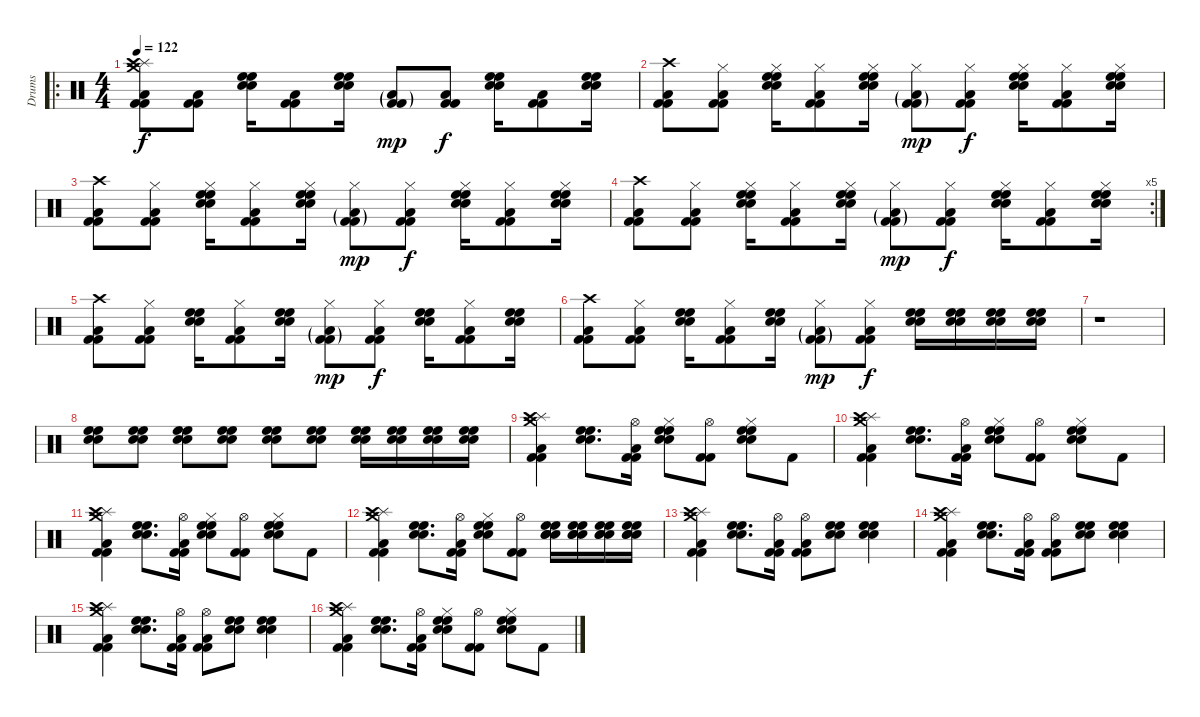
\track ("Drums" "Drums") {instrument percussion}
\staff {score}
\articulation defaults
\ro
\ts (4 4)
\tempo 122
\clef neutral
\ks c
("Crash medium (hit)" "Splash (hit)" "Crash high (hit)" "Low Floor Tom (hit)" "Kick (hit) 2" "Kick (hit) 2").8{dy f} ("Low Floor Tom (hit)" "Kick (hit) 2" "Kick (hit) 2").8 ("High Floor Tom (hit)" "Electric Snare (hit)" "High Floor Tom (hit)" "Electric Snare (hit)").16 ("Low Floor Tom (hit)" "Kick (hit) 2" "Kick (hit) 2").8 ("High Floor Tom (hit)" "Electric Snare (hit)" "High Floor Tom (hit)" "Electric Snare (hit)").16 ("Low Floor Tom (hit)"{g} "Kick (hit) 2"{g} "Kick (hit) 2"{g}).8{dy mp} ("Low Floor Tom (hit)" "Kick (hit) 2" "Kick (hit) 2").8{dy f} ("High Floor Tom (hit)" "Electric Snare (hit)" "High Floor Tom (hit)" "Electric Snare (hit)").16 ("Low Floor Tom (hit)" "Kick (hit) 2" "Kick (hit) 2").8 ("High Floor Tom (hit)" "Electric Snare (hit)" "High Floor Tom (hit)" "Electric Snare (hit)").16 |
("Crash high (hit)" "Low Floor Tom (hit)" "Kick (hit) 2" "Kick (hit) 2").8 ("Hi-Hat (closed)" "Low Floor Tom (hit)" "Kick (hit) 2" "Kick (hit) 2").8 ("Hi-Hat (closed)" "High Floor Tom (hit)" "Electric Snare (hit)" "High Floor Tom (hit)" "Electric Snare (hit)").16 ("Hi-Hat (closed)" "Low Floor Tom (hit)" "Kick (hit) 2" "Kick (hit) 2").8 ("Hi-Hat (closed)" "High Floor Tom (hit)" "Electric Snare (hit)" "High Floor Tom (hit)" "Electric Snare (hit)").16 ("Hi-Hat (closed)" "Low Floor Tom (hit)"{g} "Kick (hit) 2"{g} "Kick (hit) 2"{g}).8{dy mp} ("Hi-Hat (closed)" "Low Floor Tom (hit)" "Kick (hit) 2" "Kick (hit) 2").8{dy f} ("Hi-Hat (closed)" "High Floor Tom (hit)" "Electric Snare (hit)" "High Floor Tom (hit)" "Electric Snare (hit)").16 ("Hi-Hat (closed)" "Low Floor Tom (hit)" "Kick (hit) 2" "Kick (hit) 2").8 ("Hi-Hat (closed)" "High Floor Tom (hit)" "Electric Snare (hit)" "High Floor Tom (hit)" "Electric Snare (hit)").16 |
("Crash high (hit)" "Low Floor Tom (hit)" "Kick (hit) 2" "Kick (hit) 2").8 ("Hi-Hat (closed)" "Low Floor Tom (hit)" "Kick (hit) 2" "Kick (hit) 2").8 ("Hi-Hat (closed)" "High Floor Tom (hit)" "Electric Snare (hit)" "High Floor Tom (hit)" "Electric Snare (hit)").16 ("Hi-Hat (closed)" "Low Floor Tom (hit)" "Kick (hit) 2" "Kick (hit) 2").8 ("Hi-Hat (closed)" "High Floor Tom (hit)" "Electric Snare (hit)" "High Floor Tom (hit)" "Electric Snare (hit)").16 ("Hi-Hat (closed)" "Low Floor Tom (hit)"{g} "Kick (hit) 2"{g} "Kick (hit) 2"{g}).8{dy mp} ("Hi-Hat (closed)" "Low Floor Tom (hit)" "Kick (hit) 2" "Kick (hit) 2").8{dy f} ("Hi-Hat (closed)" "High Floor Tom (hit)" "Electric Snare (hit)" "High Floor Tom (hit)" "Electric Snare (hit)").16 ("Hi-Hat (closed)" "Low Floor Tom (hit)" "Kick (hit) 2" "Kick (hit) 2").8 ("Hi-Hat (closed)" "High Floor Tom (hit)" "Electric Snare (hit)" "High Floor Tom (hit)" "Electric Snare (hit)").16 |
\rc 5
("Crash high (hit)" "Low Floor Tom (hit)" "Kick (hit) 2" "Kick (hit) 2").8 ("Hi-Hat (closed)" "Low Floor Tom (hit)" "Kick (hit) 2" "Kick (hit) 2").8 ("Hi-Hat (closed)" "High Floor Tom (hit)" "Electric Snare (hit)" "High Floor Tom (hit)" "Electric Snare (hit)").16 ("Hi-Hat (closed)" "Low Floor Tom (hit)" "Kick (hit) 2" "Kick (hit) 2").8 ("Hi-Hat (closed)" "High Floor Tom (hit)" "Electric Snare (hit)" "High Floor Tom (hit)" "Electric Snare (hit)").16 ("Hi-Hat (closed)" "Low Floor Tom (hit)"{g} "Kick (hit) 2"{g} "Kick (hit) 2"{g}).8{dy mp} ("Hi-Hat (closed)" "Low Floor Tom (hit)" "Kick (hit) 2" "Kick (hit) 2").8{dy f} ("Hi-Hat (closed)" "High Floor Tom (hit)" "Electric Snare (hit)" "High Floor Tom (hit)" "Electric Snare (hit)").16 ("Hi-Hat (closed)" "Low Floor Tom (hit)" "Kick (hit) 2" "Kick (hit) 2").8 ("Hi-Hat (closed)" "High Floor Tom (hit)" "Electric Snare (hit)" "High Floor Tom (hit)" "Electric Snare (hit)").16 |
("Crash high (hit)" "Low Floor Tom (hit)" "Kick (hit) 2" "Kick (hit) 2").8 ("Hi-Hat (closed)" "Low Floor Tom (hit)" "Kick (hit) 2" "Kick (hit) 2").8 ("High Floor Tom (hit)" "Electric Snare (hit)" "High Floor Tom (hit)" "Electric Snare (hit)").16 ("Hi-Hat (closed)" "Low Floor Tom (hit)" "Kick (hit) 2" "Kick (hit) 2").8 ("High Floor Tom (hit)" "Electric Snare (hit)" "High Floor Tom (hit)" "Electric Snare (hit)").16 ("Hi-Hat (closed)" "Low Floor Tom (hit)"{g} "Kick (hit) 2"{g} "Kick (hit) 2"{g}).8{dy mp} ("Hi-Hat (closed)" "Low Floor Tom (hit)" "Kick (hit) 2" "Kick (hit) 2").8{dy f} ("High Floor Tom (hit)" "Electric Snare (hit)" "High Floor Tom (hit)" "Electric Snare (hit)").16 ("Hi-Hat (closed)" "Low Floor Tom (hit)" "Kick (hit) 2" "Kick (hit) 2").8 ("High Floor Tom (hit)" "Electric Snare (hit)" "High Floor Tom (hit)" "Electric Snare (hit)").16 |
("Crash high (hit)" "Low Floor Tom (hit)" "Kick (hit) 2" "Kick (hit) 2").8 ("Hi-Hat (closed)" "Low Floor Tom (hit)" "Kick (hit) 2" "Kick (hit) 2").8 ("High Floor Tom (hit)" "Electric Snare (hit)" "High Floor Tom (hit)" "Electric Snare (hit)").16 ("Hi-Hat (closed)" "Low Floor Tom (hit)" "Kick (hit) 2" "Kick (hit) 2").8 ("High Floor Tom (hit)" "Electric Snare (hit)" "High Floor Tom (hit)" "Electric Snare (hit)").16 ("Hi-Hat (closed)" "Low Floor Tom (hit)"{g} "Kick (hit) 2"{g} "Kick (hit) 2"{g}).8{dy mp} ("Hi-Hat (closed)" "Low Floor Tom (hit)" "Kick (hit) 2" "Kick (hit) 2").8{dy f} ("High Floor Tom (hit)" "Electric Snare (hit)" "High Floor Tom (hit)" "Electric Snare (hit)").16 ("High Floor Tom (hit)" "Electric Snare (hit)" "High Floor Tom (hit)" "Electric Snare (hit)").16 ("High Floor Tom (hit)" "Electric Snare (hit)" "High Floor Tom (hit)" "Electric Snare (hit)").16 ("High Floor Tom (hit)" "Electric Snare (hit)" "High Floor Tom (hit)" "Electric Snare (hit)").16 |
r.1 |
("Electric Snare (hit)" "High Floor Tom (hit)"{x} "High Floor Tom (hit)" "Electric Snare (hit)").8 ("Electric Snare (hit)" "High Floor Tom (hit)"{x} "High Floor Tom (hit)" "Electric Snare (hit)").8 ("Electric Snare (hit)" "High Floor Tom (hit)"{x} "High Floor Tom (hit)" "Electric Snare (hit)").8 ("Electric Snare (hit)" "High Floor Tom (hit)"{x} "High Floor Tom (hit)" "Electric Snare (hit)").8 ("Electric Snare (hit)" "High Floor Tom (hit)"{x} "High Floor Tom (hit)" "Electric Snare (hit)").8 ("Electric Snare (hit)" "High Floor Tom (hit)"{x} "High Floor Tom (hit)" "Electric Snare (hit)").8 ("Electric Snare (hit)" "High Floor Tom (hit)" "High Floor Tom (hit)" "Electric Snare (hit)").16 ("Electric Snare (hit)" "High Floor Tom (hit)" "High Floor Tom (hit)" "Electric Snare (hit)").16 ("Electric Snare (hit)" "High Floor Tom (hit)" "High Floor Tom (hit)" "Electric Snare (hit)").16 ("Electric Snare (hit)" "High Floor Tom (hit)" "High Floor Tom (hit)" "Electric Snare (hit)").16 |
("Crash medium (hit)" "Splash (hit)" "Crash high (hit)" "Low Floor Tom (hit)" "Kick (hit) 2" "Kick (hit) 2").4 ("Electric Snare (hit)" "High Floor Tom (hit)" "Electric Snare (hit)" "High Floor Tom (hit)").8{d} ("Hi-Hat (open)" "Low Floor Tom (hit)" "Kick (hit) 2" "Kick (hit) 2").16 ("Hi-Hat (closed)" "Electric Snare (hit)" "High Floor Tom (hit)" "Electric Snare (hit)" "High Floor Tom (hit)").8 ("Hi-Hat (open)" "Kick (hit) 2" "Kick (hit) 2").8 ("Hi-Hat (closed)" "Electric Snare (hit)" "High Floor Tom (hit)" "Electric Snare (hit)" "High Floor Tom (hit)").8 "Kick (hit) 2".8 |
("Crash medium (hit)" "Splash (hit)" "Crash high (hit)" "Low Floor Tom (hit)" "Kick (hit) 2" "Kick (hit) 2").4 ("Electric Snare (hit)" "High Floor Tom (hit)" "Electric Snare (hit)" "High Floor Tom (hit)").8{d} ("Hi-Hat (open)" "Low Floor Tom (hit)" "Kick (hit) 2" "Kick (hit) 2").16 ("Hi-Hat (closed)" "Electric Snare (hit)" "High Floor Tom (hit)" "Electric Snare (hit)" "High Floor Tom (hit)").8 ("Hi-Hat (open)" "Kick (hit) 2" "Kick (hit) 2").8 ("Hi-Hat (closed)" "Electric Snare (hit)" "High Floor Tom (hit)" "Electric Snare (hit)" "High Floor Tom (hit)").8 "Kick (hit) 2".8 |
("Crash medium (hit)" "Splash (hit)" "Crash high (hit)" "Low Floor Tom (hit)" "Kick (hit) 2" "Kick (hit) 2").4 ("Electric Snare (hit)" "High Floor Tom (hit)" "Electric Snare (hit)" "High Floor Tom (hit)").8{d} ("Hi-Hat (open)" "Low Floor Tom (hit)" "Kick (hit) 2" "Kick (hit) 2").16 ("Hi-Hat (closed)" "Electric Snare (hit)" "High Floor Tom (hit)" "Electric Snare (hit)" "High Floor Tom (hit)").8 ("Hi-Hat (open)" "Kick (hit) 2" "Kick (hit) 2").8 ("Hi-Hat (closed)" "Electric Snare (hit)" "High Floor Tom (hit)" "Electric Snare (hit)" "High Floor Tom (hit)").8 "Kick (hit) 2".8 |
("Crash medium (hit)" "Splash (hit)" "Crash high (hit)" "Low Floor Tom (hit)" "Kick (hit) 2" "Kick (hit) 2").4 ("Electric Snare (hit)" "High Floor Tom (hit)" "Electric Snare (hit)" "High Floor Tom (hit)").8{d} ("Hi-Hat (open)" "Low Floor Tom (hit)" "Kick (hit) 2" "Kick (hit) 2").16 ("Hi-Hat (closed)" "Electric Snare (hit)" "High Floor Tom (hit)" "Electric Snare (hit)" "High Floor Tom (hit)").8 ("Hi-Hat (open)" "Kick (hit) 2" "Kick (hit) 2").8 ("Electric Snare (hit)" "Electric Snare (hit)" "High Floor Tom (hit)" "Electric Snare (hit)" "High Floor Tom (hit)").16 ("Electric Snare (hit)" "Electric Snare (hit)" "High Floor Tom (hit)" "Electric Snare (hit)" "High Floor Tom (hit)").16 ("Electric Snare (hit)" "Electric Snare (hit)" "High Floor Tom (hit)" "Electric Snare (hit)" "High Floor Tom (hit)").16 ("Electric Snare (hit)" "Electric Snare (hit)" "High Floor Tom (hit)" "Electric Snare (hit)" "High Floor Tom (hit)").16 |
("Crash medium (hit)" "Splash (hit)" "Crash high (hit)" "Low Floor Tom (hit)" "Kick (hit) 2" "Kick (hit) 2").4 ("Electric Snare (hit)" "High Floor Tom (hit)" "Electric Snare (hit)" "High Floor Tom (hit)").8{d} ("Hi-Hat (open)" "Low Floor Tom (hit)" "Kick (hit) 2" "Kick (hit) 2").16 ("Hi-Hat (open)" "Low Floor Tom (hit)" "Kick (hit) 2" "Kick (hit) 2").8 ("Electric Snare (hit)" "High Floor Tom (hit)" "Electric Snare (hit)" "High Floor Tom (hit)").8 ("Electric Snare (hit)" "High Floor Tom (hit)" "Electric Snare (hit)" "High Floor Tom (hit)").4 |
("Crash medium (hit)" "Splash (hit)" "Crash high (hit)" "Low Floor Tom (hit)" "Kick (hit) 2" "Kick (hit) 2").4 ("Electric Snare (hit)" "High Floor Tom (hit)" "Electric Snare (hit)" "High Floor Tom (hit)").8{d} ("Hi-Hat (open)" "Low Floor Tom (hit)" "Kick (hit) 2" "Kick (hit) 2").16 ("Hi-Hat (open)" "Low Floor Tom (hit)" "Kick (hit) 2" "Kick (hit) 2").8 ("Electric Snare (hit)" "High Floor Tom (hit)" "Electric Snare (hit)" "High Floor Tom (hit)").8 ("Electric Snare (hit)" "High Floor Tom (hit)" "Electric Snare (hit)" "High Floor Tom (hit)").4 |
("Crash medium (hit)" "Splash (hit)" "Crash high (hit)" "Low Floor Tom (hit)" "Kick (hit) 2" "Kick (hit) 2").4 ("Electric Snare (hit)" "High Floor Tom (hit)" "Electric Snare (hit)" "High Floor Tom (hit)").8{d} ("Hi-Hat (open)" "Low Floor Tom (hit)" "Kick (hit) 2" "Kick (hit) 2").16 ("Hi-Hat (open)" "Low Floor Tom (hit)" "Kick (hit) 2" "Kick (hit) 2").8 ("Electric Snare (hit)" "High Floor Tom (hit)" "Electric Snare (hit)" "High Floor Tom (hit)").8 ("Electric Snare (hit)" "High Floor Tom (hit)" "Electric Snare (hit)" "High Floor Tom (hit)").4 |
("Crash medium (hit)" "Splash (hit)" "Crash high (hit)" "Low Floor Tom (hit)" "Kick (hit) 2" "Kick (hit) 2").4 ("Electric Snare (hit)" "High Floor Tom (hit)" "Electric Snare (hit)" "High Floor Tom (hit)").8{d} ("Hi-Hat (open)" "Low Floor Tom (hit)" "Kick (hit) 2" "Kick (hit) 2").16 ("Hi-Hat (closed)" "Electric Snare (hit)" "High Floor Tom (hit)" "Electric Snare (hit)" "High Floor Tom (hit)").8 ("Hi-Hat (open)" "Kick (hit) 2" "Kick (hit) 2").8 ("Hi-Hat (closed)" "Electric Snare (hit)" "High Floor Tom (hit)" "Electric Snare (hit)" "High Floor Tom (hit)").8 "Kick (hit) 2".8
